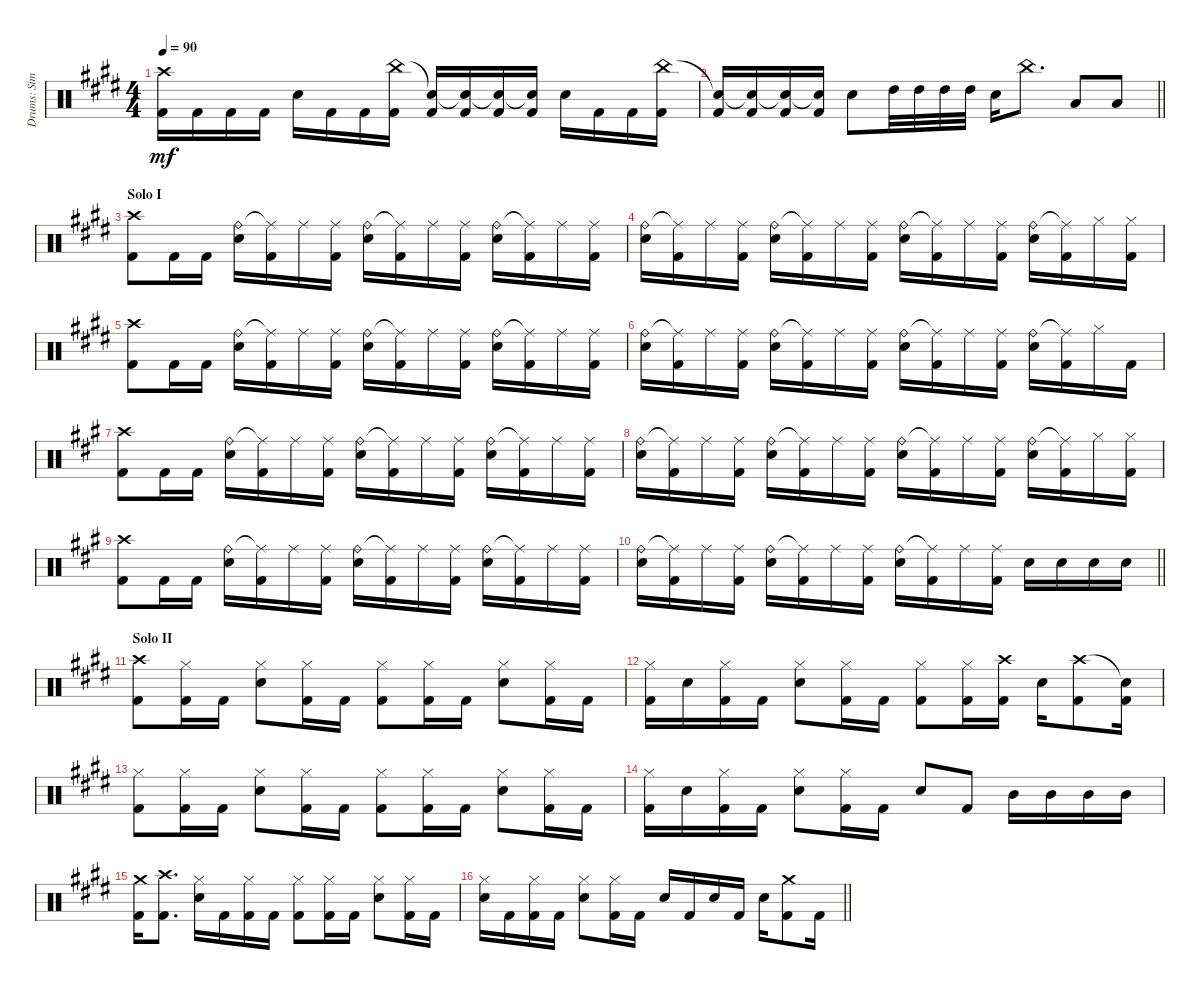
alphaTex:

\track ("Drums: Simon" "Drums: Sim") {instrument percussion}
\staff {score}
\articulation defaults
\ts (4 4)
\tempo 90
\clef neutral
\ks e
("Crash high (hit)" "Kick (hit) 2").16{dy mf} "Kick (hit) 2".16 "Kick (hit) 2".16 "Kick (hit) 2".16 "Electric Snare (hit)".16 "Kick (hit) 2".16 "Kick (hit) 2".16 ("China (hit)" "Kick (hit) 2").16 ("Snare (hit)"{t} "Kick (hit) 2").16 ("Snare (hit)"{t} "Kick (hit) 2").16 ("Snare (hit)"{t} "Kick (hit) 2").16 ("Snare (hit)"{t} "Kick (hit) 2").16 "Electric Snare (hit)".16 "Kick (hit) 2".16 "Kick (hit) 2".16 ("China (hit)" "Kick (hit) 2").16 |
\barLineRight lightlight
("Snare (hit)"{t} "Kick (hit) 2").16 ("Snare (hit)"{t} "Kick (hit) 2").16 ("Snare (hit)"{t} "Kick (hit) 2").16 ("Snare (hit)"{t} "Kick (hit) 2").16 "Electric Snare (hit)".8 "High Tom (hit)".32 "High Tom (hit)".32 "High Tom (hit)".32 "High Tom (hit)".32 "Electric Snare (hit)".16 "China (hit)".8{d} "Low Tom (hit)".8 "Low Tom (hit)".8 |
\section ("" "Solo I")
("Crash high (hit)" "Kick (hit) 2").8 "Kick (hit) 2".16 "Kick (hit) 2".16 ("Ride (bell)" "Electric Snare (hit)").16 ("Ride (middle)"{t} "Kick (hit) 2").16 "Ride (middle)".16 ("Ride (middle)" "Kick (hit) 2").16 ("Ride (bell)" "Electric Snare (hit)").16 ("Ride (middle)"{t} "Kick (hit) 2").16 "Ride (middle)".16 ("Ride (middle)" "Kick (hit) 2").16 ("Ride (bell)" "Electric Snare (hit)").16 ("Ride (middle)"{t} "Kick (hit) 2").16 "Ride (middle)".16 ("Ride (middle)" "Kick (hit) 2").16 |
("Ride (bell)" "Electric Snare (hit)").16 ("Ride (middle)"{t} "Kick (hit) 2").16 "Ride (middle)".16 ("Ride (middle)" "Kick (hit) 2").16 ("Ride (bell)" "Electric Snare (hit)").16 ("Ride (middle)"{t} "Kick (hit) 2").16 "Ride (middle)".16 ("Ride (middle)" "Kick (hit) 2").16 ("Ride (bell)" "Electric Snare (hit)").16 ("Ride (middle)"{t} "Kick (hit) 2").16 "Ride (middle)".16 ("Ride (middle)" "Kick (hit) 2").16 ("Ride (bell)" "Electric Snare (hit)").16 ("Ride (middle)"{t} "Kick (hit) 2").16 "Hi-Hat (closed)".16 ("Hi-Hat (closed)" "Kick (hit) 2").16 |
("Crash high (hit)" "Kick (hit) 2").8 "Kick (hit) 2".16 "Kick (hit) 2".16 ("Ride (bell)" "Electric Snare (hit)").16 ("Ride (middle)"{t} "Kick (hit) 2").16 "Ride (middle)".16 ("Ride (middle)" "Kick (hit) 2").16 ("Ride (bell)" "Electric Snare (hit)").16 ("Ride (middle)"{t} "Kick (hit) 2").16 "Ride (middle)".16 ("Ride (middle)" "Kick (hit) 2").16 ("Ride (bell)" "Electric Snare (hit)").16 ("Ride (middle)"{t} "Kick (hit) 2").16 "Ride (middle)".16 ("Ride (middle)" "Kick (hit) 2").16 |
("Ride (bell)" "Electric Snare (hit)").16 ("Ride (middle)"{t} "Kick (hit) 2").16 "Ride (middle)".16 ("Ride (middle)" "Kick (hit) 2").16 ("Ride (bell)" "Electric Snare (hit)").16 ("Ride (middle)"{t} "Kick (hit) 2").16 "Ride (middle)".16 ("Ride (middle)" "Kick (hit) 2").16 ("Ride (bell)" "Electric Snare (hit)").16 ("Ride (middle)"{t} "Kick (hit) 2").16 "Ride (middle)".16 ("Ride (middle)" "Kick (hit) 2").16 ("Ride (bell)" "Electric Snare (hit)").16 ("Ride (middle)"{t} "Kick (hit) 2").16 "Hi-Hat (closed)".16 "Kick (hit) 2".16 |
\ks a
("Crash high (hit)" "Kick (hit) 2").8 "Kick (hit) 2".16 "Kick (hit) 2".16 ("Ride (bell)" "Electric Snare (hit)").16 ("Ride (middle)"{t} "Kick (hit) 2").16 "Ride (middle)".16 ("Ride (middle)" "Kick (hit) 2").16 ("Ride (bell)" "Electric Snare (hit)").16 ("Ride (middle)"{t} "Kick (hit) 2").16 "Ride (middle)".16 ("Ride (middle)" "Kick (hit) 2").16 ("Ride (bell)" "Electric Snare (hit)").16 ("Ride (middle)"{t} "Kick (hit) 2").16 "Ride (middle)".16 ("Ride (middle)" "Kick (hit) 2").16 |
("Ride (bell)" "Electric Snare (hit)").16 ("Ride (middle)"{t} "Kick (hit) 2").16 "Ride (middle)".16 ("Ride (middle)" "Kick (hit) 2").16 ("Ride (bell)" "Electric Snare (hit)").16 ("Ride (middle)"{t} "Kick (hit) 2").16 "Ride (middle)".16 ("Ride (middle)" "Kick (hit) 2").16 ("Ride (bell)" "Electric Snare (hit)").16 ("Ride (middle)"{t} "Kick (hit) 2").16 "Ride (middle)".16 ("Ride (middle)" "Kick (hit) 2").16 ("Ride (bell)" "Electric Snare (hit)").16 ("Ride (middle)"{t} "Kick (hit) 2").16 "Hi-Hat (closed)".16 ("Hi-Hat (closed)" "Kick (hit) 2").16 |
("Crash high (hit)" "Kick (hit) 2").8 "Kick (hit) 2".16 "Kick (hit) 2".16 ("Ride (bell)" "Electric Snare (hit)").16 ("Ride (middle)"{t} "Kick (hit) 2").16 "Ride (middle)".16 ("Ride (middle)" "Kick (hit) 2").16 ("Ride (bell)" "Electric Snare (hit)").16 ("Ride (middle)"{t} "Kick (hit) 2").16 "Ride (middle)".16 ("Ride (middle)" "Kick (hit) 2").16 ("Ride (bell)" "Electric Snare (hit)").16 ("Ride (middle)"{t} "Kick (hit) 2").16 "Ride (middle)".16 ("Ride (middle)" "Kick (hit) 2").16 |
\barLineRight lightlight
("Ride (bell)" "Electric Snare (hit)").16 ("Ride (middle)"{t} "Kick (hit) 2").16 "Ride (middle)".16 ("Ride (middle)" "Kick (hit) 2").16 ("Ride (bell)" "Electric Snare (hit)").16 ("Ride (middle)"{t} "Kick (hit) 2").16 "Ride (middle)".16 ("Ride (middle)" "Kick (hit) 2").16 ("Ride (bell)" "Electric Snare (hit)").16 ("Ride (middle)"{t} "Kick (hit) 2").16 "Ride (middle)".16 ("Ride (middle)" "Kick (hit) 2").16 "Electric Snare (hit)".16 "Electric Snare (hit)".16 "Electric Snare (hit)".16 "Electric Snare (hit)".16 |
\section ("" "Solo II")
\ks e
("Crash high (hit)" "Kick (hit) 2").8 ("Hi-Hat (closed)" "Kick (hit) 2").16 "Kick (hit) 2".16 ("Hi-Hat (closed)" "Electric Snare (hit)").8 ("Hi-Hat (closed)" "Kick (hit) 2").16 "Kick (hit) 2".16 ("Hi-Hat (closed)" "Kick (hit) 2").8 ("Hi-Hat (closed)" "Kick (hit) 2").16 "Kick (hit) 2".16 ("Hi-Hat (closed)" "Electric Snare (hit)").8 ("Hi-Hat (closed)" "Kick (hit) 2").16 "Kick (hit) 2".16 |
("Hi-Hat (closed)" "Kick (hit) 2").16 "Electric Snare (hit)".16 ("Hi-Hat (closed)" "Kick (hit) 2").16 "Kick (hit) 2".16 ("Hi-Hat (closed)" "Electric Snare (hit)").8 ("Hi-Hat (closed)" "Kick (hit) 2").16 "Kick (hit) 2".16 ("Hi-Hat (closed)" "Kick (hit) 2").8 ("Hi-Hat (closed)" "Kick (hit) 2").16 ("Crash high (hit)" "Kick (hit) 2").16 "Electric Snare (hit)".16 ("Crash high (hit)" "Kick (hit) 2").8 ("Snare (hit)"{t} "Kick (hit) 2").16 |
("Hi-Hat (closed)" "Kick (hit) 2").8 ("Hi-Hat (closed)" "Kick (hit) 2").16 "Kick (hit) 2".16 ("Hi-Hat (closed)" "Electric Snare (hit)").8 ("Hi-Hat (closed)" "Kick (hit) 2").16 "Kick (hit) 2".16 ("Hi-Hat (closed)" "Kick (hit) 2").8 ("Hi-Hat (closed)" "Kick (hit) 2").16 "Kick (hit) 2".16 ("Hi-Hat (closed)" "Electric Snare (hit)").8 ("Hi-Hat (closed)" "Kick (hit) 2").16 "Kick (hit) 2".16 |
("Hi-Hat (closed)" "Kick (hit) 2").16 "Electric Snare (hit)".16 ("Hi-Hat (closed)" "Kick (hit) 2").16 "Kick (hit) 2".16 ("Hi-Hat (closed)" "Electric Snare (hit)").8 ("Hi-Hat (closed)" "Kick (hit) 2").16 "Kick (hit) 2".16 "Electric Snare (hit)".8 "Kick (hit) 2".8 "Mid Tom (hit)".16 "Mid Tom (hit)".16 "Mid Tom (hit)".16 "Mid Tom (hit)".16 |
("Crash medium (hit)" "Kick (hit) 2").16 ("Crash high (hit)" "Kick (hit) 2").8{d} ("Hi-Hat (closed)" "Electric Snare (hit)").16 "Kick (hit) 2".16 ("Hi-Hat (closed)" "Kick (hit) 2").16 "Kick (hit) 2".16 ("Hi-Hat (closed)" "Kick (hit) 2").8 ("Hi-Hat (closed)" "Kick (hit) 2").16 "Kick (hit) 2".16 ("Hi-Hat (closed)" "Electric Snare (hit)").8 ("Hi-Hat (closed)" "Kick (hit) 2").16 "Kick (hit) 2".16 |
\barLineRight lightlight
("Hi-Hat (closed)" "Electric Snare (hit)").16 "Kick (hit) 2".16 ("Hi-Hat (closed)" "Kick (hit) 2").16 "Kick (hit) 2".16 ("Hi-Hat (closed)" "Electric Snare (hit)").8 ("Hi-Hat (closed)" "Kick (hit) 2").16 "Kick (hit) 2".16 "Electric Snare (hit)".16 "Kick (hit) 2".16 "Electric Snare (hit)".16 "Kick (hit) 2".16 "Electric Snare (hit)".16 ("Crash medium (hit)" "Kick (hit) 2").8 "Kick (hit) 2".16
